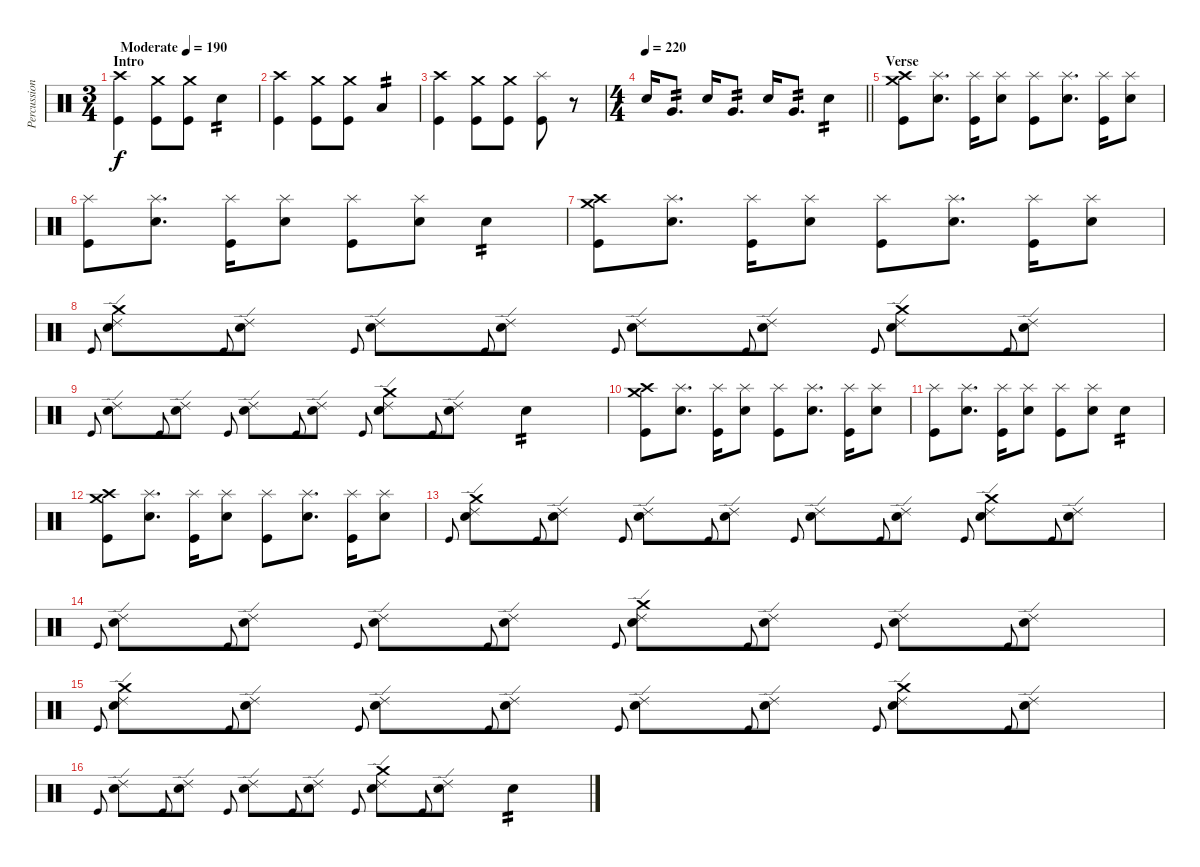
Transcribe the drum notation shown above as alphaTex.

\track ("Percussion" "Percussion") {instrument percussion}
\staff {score}
\articulation defaults
\ts (3 4)
\section ("" "Intro")
\tempo (190 "Moderate")
\tempo 170
\tempo (190 "Moderate")
\clef neutral
\ks c
("Crash high (hit)" "Kick (hit)").4{dy f} ("Crash medium (hit)" "Kick (hit)").8 ("Crash medium (hit)" "Kick (hit)").8 "Snare (hit) 2".4{tp 2} |
("Crash high (hit)" "Kick (hit)").4 ("Crash medium (hit)" "Kick (hit)").8 ("Crash medium (hit)" "Kick (hit)").8 "Low Tom (hit)".4{tp 2} |
("Crash high (hit)" "Kick (hit)").4 ("Crash medium (hit)" "Kick (hit)").8 ("Crash medium (hit)" "Kick (hit)").8 ("Splash (hit)" "Kick (hit)").8 r.8 |
\ts (4 4)
\tempo 220
\barLineRight lightlight "Snare (hit) 2".16 "Very Low Tom (hit)".8{d tp 2} "Snare (hit) 2".16 "Very Low Tom (hit)".8{d tp 2} "Snare (hit) 2".16 "Very Low Tom (hit)".8{d tp 2} "Snare (hit) 2".4{tp 2}
|
\section ("" "Verse")
("Crash medium (hit)" "Crash high (hit)" "Kick (hit)").8 ("Splash (hit)" "Snare (hit) 2").8{d} ("Splash (hit)" "Kick (hit)").16 ("Splash (hit)" "Snare (hit) 2").8 ("Splash (hit)" "Kick (hit)").8 ("Splash (hit)" "Snare (hit) 2").8{d} ("Splash (hit)" "Kick (hit)").16 ("Splash (hit)" "Snare (hit) 2").8 |
("Splash (hit)" "Kick (hit)").8 ("Splash (hit)" "Snare (hit) 2").8{d} ("Splash (hit)" "Kick (hit)").16 ("Splash (hit)" "Snare (hit) 2").8 ("Splash (hit)" "Kick (hit)").8 ("Splash (hit)" "Snare (hit) 2").8 "Snare (hit) 2".4{tp 2} |
("Crash high (hit)" "Crash medium (hit)" "Kick (hit)").8 ("Splash (hit)" "Snare (hit) 2").8{d} ("Splash (hit)" "Kick (hit)").16 ("Splash (hit)" "Snare (hit) 2").8 ("Splash (hit)" "Kick (hit)").8 ("Splash (hit)" "Snare (hit) 2").8{d} ("Splash (hit)" "Kick (hit)").16 ("Splash (hit)" "Snare (hit) 2").8 |
"Kick (hit)".8{gr onbeat} ("Crash medium (hit)" "Ride (edge) 2" "Snare (hit) 2").8 "Kick (hit)".8{gr onbeat} ("Ride (edge) 2" "Snare (hit) 2").8 "Kick (hit)".8{gr onbeat} ("Ride (edge) 2" "Snare (hit) 2").8 "Kick (hit)".8{gr onbeat} ("Ride (edge) 2" "Snare (hit) 2").8 "Kick (hit)".8{gr onbeat} ("Ride (edge) 2" "Snare (hit) 2").8 "Kick (hit)".8{gr onbeat} ("Ride (edge) 2" "Snare (hit) 2").8 "Kick (hit)".8{gr onbeat} ("Crash medium (hit)" "Ride (edge) 2" "Snare (hit) 2").8 "Kick (hit)".8{gr onbeat} ("Ride (edge) 2" "Snare (hit) 2").8 |
"Kick (hit)".8{gr onbeat} ("Ride (edge) 2" "Snare (hit) 2").8 "Kick (hit)".8{gr onbeat} ("Ride (edge) 2" "Snare (hit) 2").8 "Kick (hit)".8{gr onbeat} ("Ride (edge) 2" "Snare (hit) 2").8 "Kick (hit)".8{gr onbeat} ("Ride (edge) 2" "Snare (hit) 2").8 "Kick (hit)".8{gr onbeat} ("Crash medium (hit)" "Ride (edge) 2" "Snare (hit) 2").8 "Kick (hit)".8{gr onbeat} ("Ride (edge) 2" "Snare (hit) 2").8 "Snare (hit) 2".4{tp 2} |
("Crash medium (hit)" "Crash high (hit)" "Kick (hit)").8 ("Splash (hit)" "Snare (hit) 2").8{d} ("Splash (hit)" "Kick (hit)").16 ("Splash (hit)" "Snare (hit) 2").8 ("Splash (hit)" "Kick (hit)").8 ("Splash (hit)" "Snare (hit) 2").8{d} ("Splash (hit)" "Kick (hit)").16 ("Splash (hit)" "Snare (hit) 2").8 |
("Splash (hit)" "Kick (hit)").8 ("Splash (hit)" "Snare (hit) 2").8{d} ("Splash (hit)" "Kick (hit)").16 ("Splash (hit)" "Snare (hit) 2").8 ("Splash (hit)" "Kick (hit)").8 ("Splash (hit)" "Snare (hit) 2").8 "Snare (hit) 2".4{tp 2} |
("Crash high (hit)" "Crash medium (hit)" "Kick (hit)").8 ("Splash (hit)" "Snare (hit) 2").8{d} ("Splash (hit)" "Kick (hit)").16 ("Splash (hit)" "Snare (hit) 2").8 ("Splash (hit)" "Kick (hit)").8 ("Splash (hit)" "Snare (hit) 2").8{d} ("Splash (hit)" "Kick (hit)").16 ("Splash (hit)" "Snare (hit) 2").8 |
"Kick (hit)".8{gr onbeat} ("Crash medium (hit)" "Ride (edge) 2" "Snare (hit) 2").8 "Kick (hit)".8{gr onbeat} ("Ride (edge) 2" "Snare (hit) 2").8 "Kick (hit)".8{gr onbeat} ("Ride (edge) 2" "Snare (hit) 2").8 "Kick (hit)".8{gr onbeat} ("Ride (edge) 2" "Snare (hit) 2").8 "Kick (hit)".8{gr onbeat} ("Ride (edge) 2" "Snare (hit) 2").8 "Kick (hit)".8{gr onbeat} ("Ride (edge) 2" "Snare (hit) 2").8 "Kick (hit)".8{gr onbeat} ("Crash medium (hit)" "Ride (edge) 2" "Snare (hit) 2").8 "Kick (hit)".8{gr onbeat} ("Ride (edge) 2" "Snare (hit) 2").8 |
"Kick (hit)".8{gr onbeat} ("Ride (edge) 2" "Snare (hit) 2").8 "Kick (hit)".8{gr onbeat} ("Ride (edge) 2" "Snare (hit) 2").8 "Kick (hit)".8{gr onbeat} ("Ride (edge) 2" "Snare (hit) 2").8 "Kick (hit)".8{gr onbeat} ("Ride (edge) 2" "Snare (hit) 2").8 "Kick (hit)".8{gr onbeat} ("Crash medium (hit)" "Ride (edge) 2" "Snare (hit) 2").8 "Kick (hit)".8{gr onbeat} ("Ride (edge) 2" "Snare (hit) 2").8 "Kick (hit)".8{gr onbeat} ("Ride (edge) 2" "Snare (hit) 2").8 "Kick (hit)".8{gr onbeat} ("Ride (edge) 2" "Snare (hit) 2").8 |
"Kick (hit)".8{gr onbeat} ("Crash medium (hit)" "Ride (edge) 2" "Snare (hit) 2").8 "Kick (hit)".8{gr onbeat} ("Ride (edge) 2" "Snare (hit) 2").8 "Kick (hit)".8{gr onbeat} ("Ride (edge) 2" "Snare (hit) 2").8 "Kick (hit)".8{gr onbeat} ("Ride (edge) 2" "Snare (hit) 2").8 "Kick (hit)".8{gr onbeat} ("Ride (edge) 2" "Snare (hit) 2").8 "Kick (hit)".8{gr onbeat} ("Ride (edge) 2" "Snare (hit) 2").8 "Kick (hit)".8{gr onbeat} ("Crash medium (hit)" "Ride (edge) 2" "Snare (hit) 2").8 "Kick (hit)".8{gr onbeat} ("Ride (edge) 2" "Snare (hit) 2").8 |
"Kick (hit)".8{gr onbeat} ("Ride (edge) 2" "Snare (hit) 2").8 "Kick (hit)".8{gr onbeat} ("Ride (edge) 2" "Snare (hit) 2").8 "Kick (hit)".8{gr onbeat} ("Ride (edge) 2" "Snare (hit) 2").8 "Kick (hit)".8{gr onbeat} ("Ride (edge) 2" "Snare (hit) 2").8 "Kick (hit)".8{gr onbeat} ("Crash medium (hit)" "Ride (edge) 2" "Snare (hit) 2").8 "Kick (hit)".8{gr onbeat} ("Ride (edge) 2" "Snare (hit) 2").8 "Snare (hit) 2".4{tp 2}
